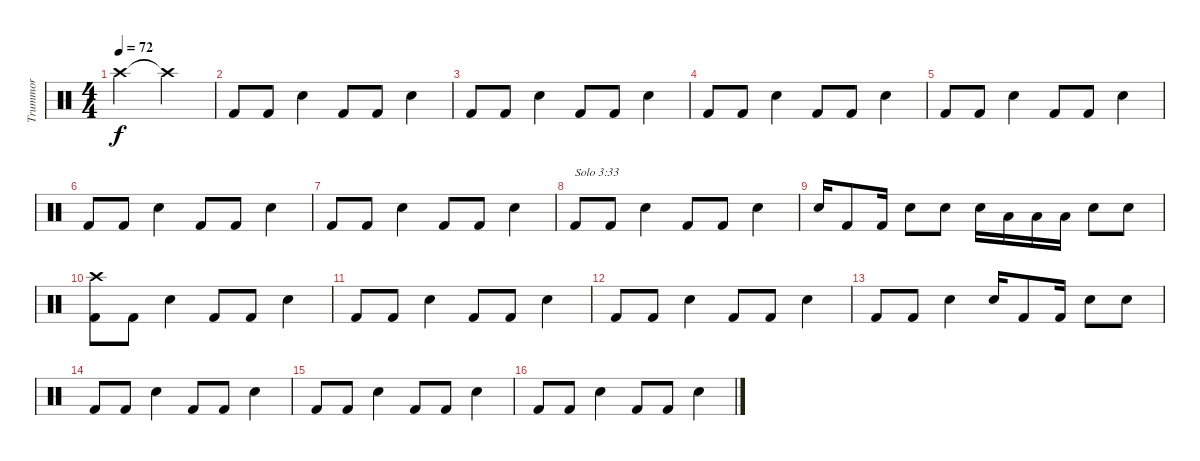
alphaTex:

\track ("Trummor" "Trummor") {instrument percussion}
\staff {score}
\articulation defaults
\ts (4 4)
\tempo 72
\clef neutral
\ks c "Crash high (hit)".2{dy f} "Crash high (hit)"{t}.2
|
"Kick (hit) 2".8 "Kick (hit) 2".8 "Snare (hit) 2".4 "Kick (hit) 2".8 "Kick (hit) 2".8 "Snare (hit) 2".4 |
"Kick (hit) 2".8 "Kick (hit) 2".8 "Snare (hit) 2".4 "Kick (hit) 2".8 "Kick (hit) 2".8 "Snare (hit) 2".4 |
"Kick (hit) 2".8 "Kick (hit) 2".8 "Snare (hit) 2".4 "Kick (hit) 2".8 "Kick (hit) 2".8 "Snare (hit) 2".4 |
"Kick (hit) 2".8 "Kick (hit) 2".8 "Snare (hit) 2".4 "Kick (hit) 2".8 "Kick (hit) 2".8 "Snare (hit) 2".4 |
"Kick (hit) 2".8 "Kick (hit) 2".8 "Snare (hit) 2".4 "Kick (hit) 2".8 "Kick (hit) 2".8 "Snare (hit) 2".4 |
"Kick (hit) 2".8 "Kick (hit) 2".8 "Snare (hit) 2".4 "Kick (hit) 2".8 "Kick (hit) 2".8 "Snare (hit) 2".4 |
"Kick (hit) 2".8{txt "Solo 3:33"} "Kick (hit) 2".8 "Snare (hit) 2".4 "Kick (hit) 2".8 "Kick (hit) 2".8 "Snare (hit) 2".4 |
"Snare (hit) 2".16 "Kick (hit) 2".8 "Kick (hit) 2".16 "Snare (hit) 2".8 "Snare (hit) 2".8 "Snare (hit) 2".16 "Low Floor Tom (hit)".16 "Low Floor Tom (hit)".16 "Low Floor Tom (hit)".16 "Snare (hit) 2".8 "Snare (hit) 2".8 |
("Crash high (hit)" "Kick (hit) 2").8 "Kick (hit) 2".8 "Snare (hit) 2".4 "Kick (hit) 2".8 "Kick (hit) 2".8 "Snare (hit) 2".4 |
"Kick (hit) 2".8 "Kick (hit) 2".8 "Snare (hit) 2".4 "Kick (hit) 2".8 "Kick (hit) 2".8 "Snare (hit) 2".4 |
"Kick (hit) 2".8 "Kick (hit) 2".8 "Snare (hit) 2".4 "Kick (hit) 2".8 "Kick (hit) 2".8 "Snare (hit) 2".4 |
"Kick (hit) 2".8 "Kick (hit) 2".8 "Snare (hit) 2".4 "Snare (hit) 2".16 "Kick (hit) 2".8 "Kick (hit) 2".16 "Snare (hit) 2".8 "Snare (hit) 2".8 |
"Kick (hit) 2".8 "Kick (hit) 2".8 "Snare (hit) 2".4 "Kick (hit) 2".8 "Kick (hit) 2".8 "Snare (hit) 2".4 |
"Kick (hit) 2".8 "Kick (hit) 2".8 "Snare (hit) 2".4 "Kick (hit) 2".8 "Kick (hit) 2".8 "Snare (hit) 2".4 |
"Kick (hit) 2".8 "Kick (hit) 2".8 "Snare (hit) 2".4 "Kick (hit) 2".8 "Kick (hit) 2".8 "Snare (hit) 2".4
